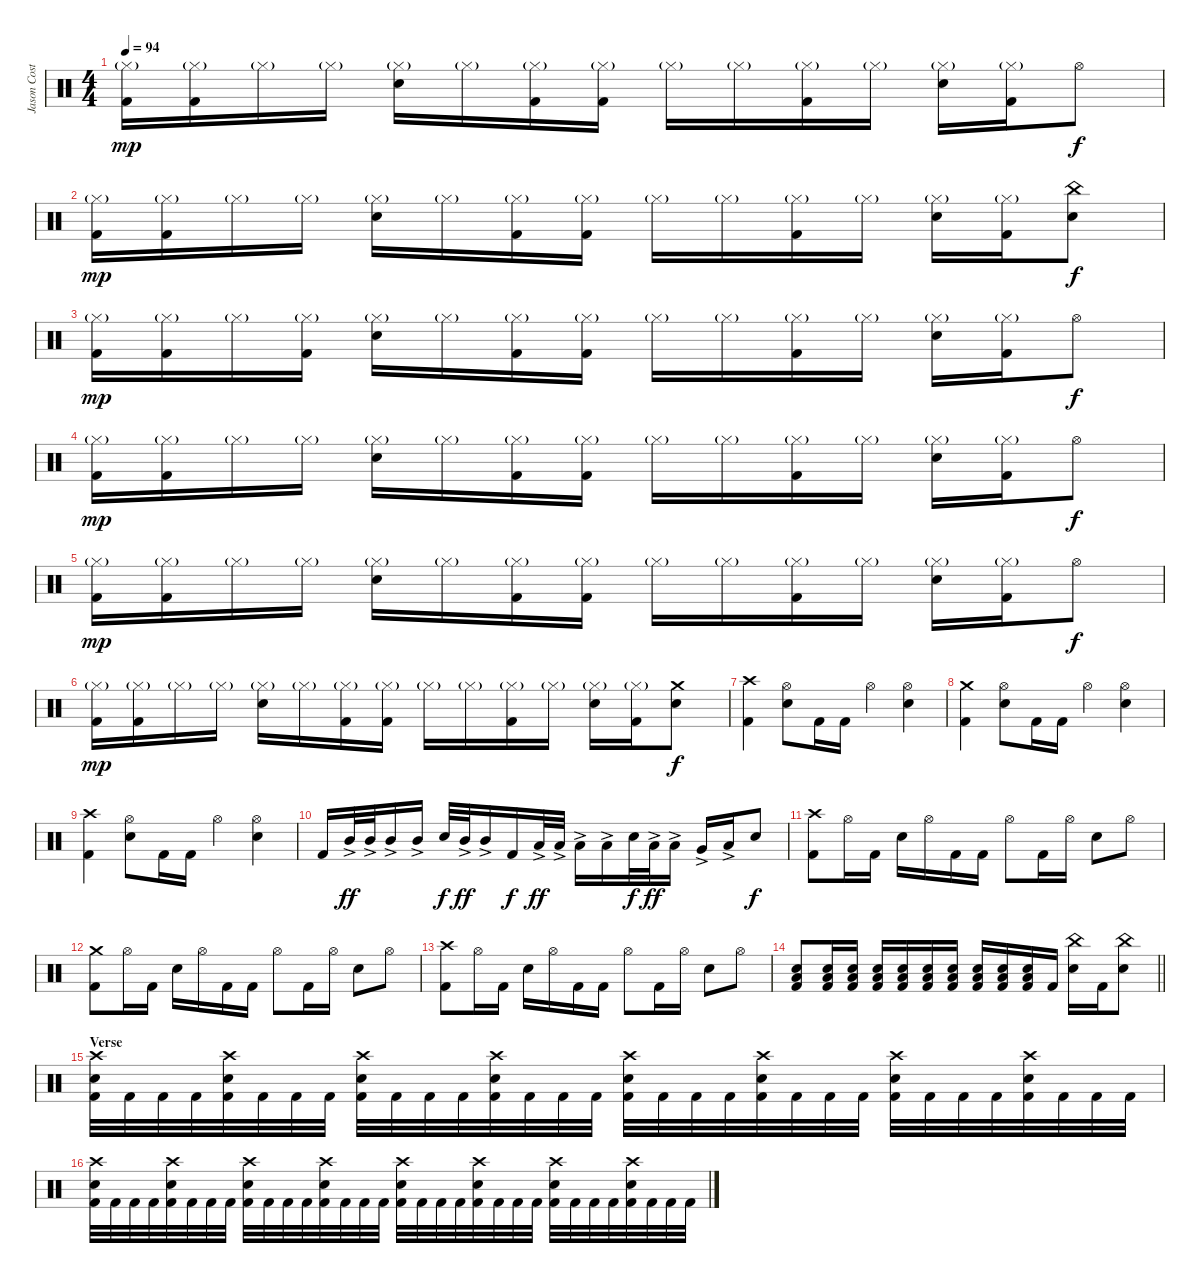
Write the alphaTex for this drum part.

\track ("Jason Costa" "Jason Cost") {instrument percussion}
\staff {score}
\articulation defaults
\ts (4 4)
\tempo 94
\clef neutral
\ks c
("Hi-Hat (closed)"{g} "Kick (hit) 2").16{dy mp} ("Hi-Hat (closed)"{g} "Kick (hit) 2").16 "Hi-Hat (closed)"{g}.16 "Hi-Hat (closed)"{g}.16 ("Snare (hit) 2" "Hi-Hat (closed)"{g}).16 "Hi-Hat (closed)"{g}.16 ("Hi-Hat (closed)"{g} "Kick (hit) 2").16 ("Hi-Hat (closed)"{g} "Kick (hit) 2").16 "Hi-Hat (closed)"{g}.16 "Hi-Hat (closed)"{g}.16 ("Hi-Hat (closed)"{g} "Kick (hit) 2").16 "Hi-Hat (closed)"{g}.16 ("Snare (hit) 2" "Hi-Hat (closed)"{g}).16 ("Hi-Hat (closed)"{g} "Kick (hit) 2").16 "Hi-Hat (open)".8{dy f} |
("Hi-Hat (closed)"{g} "Kick (hit) 2").16{dy mp} ("Hi-Hat (closed)"{g} "Kick (hit) 2").16 "Hi-Hat (closed)"{g}.16 "Hi-Hat (closed)"{g}.16 ("Snare (hit) 2" "Hi-Hat (closed)"{g}).16 "Hi-Hat (closed)"{g}.16 ("Hi-Hat (closed)"{g} "Kick (hit) 2").16 ("Hi-Hat (closed)"{g} "Kick (hit) 2").16 "Hi-Hat (closed)"{g}.16 "Hi-Hat (closed)"{g}.16 ("Hi-Hat (closed)"{g} "Kick (hit) 2").16 "Hi-Hat (closed)"{g}.16 ("Snare (hit) 2" "Hi-Hat (closed)"{g}).16 ("Hi-Hat (closed)"{g} "Kick (hit) 2").16 ("China (hit)" "Snare (hit) 2").8{dy f} |
("Hi-Hat (closed)"{g} "Kick (hit) 2").16{dy mp} ("Hi-Hat (closed)"{g} "Kick (hit) 2").16 "Hi-Hat (closed)"{g}.16 ("Hi-Hat (closed)"{g} "Kick (hit) 2").16 ("Snare (hit) 2" "Hi-Hat (closed)"{g}).16 "Hi-Hat (closed)"{g}.16 ("Hi-Hat (closed)"{g} "Kick (hit) 2").16 ("Hi-Hat (closed)"{g} "Kick (hit) 2").16 "Hi-Hat (closed)"{g}.16 "Hi-Hat (closed)"{g}.16 ("Hi-Hat (closed)"{g} "Kick (hit) 2").16 "Hi-Hat (closed)"{g}.16 ("Snare (hit) 2" "Hi-Hat (closed)"{g}).16 ("Hi-Hat (closed)"{g} "Kick (hit) 2").16 "Hi-Hat (open)".8{dy f} |
("Hi-Hat (closed)"{g} "Kick (hit) 2").16{dy mp} ("Hi-Hat (closed)"{g} "Kick (hit) 2").16 "Hi-Hat (closed)"{g}.16 "Hi-Hat (closed)"{g}.16 ("Snare (hit) 2" "Hi-Hat (closed)"{g}).16 "Hi-Hat (closed)"{g}.16 ("Hi-Hat (closed)"{g} "Kick (hit) 2").16 ("Hi-Hat (closed)"{g} "Kick (hit) 2").16 "Hi-Hat (closed)"{g}.16 "Hi-Hat (closed)"{g}.16 ("Hi-Hat (closed)"{g} "Kick (hit) 2").16 "Hi-Hat (closed)"{g}.16 ("Snare (hit) 2" "Hi-Hat (closed)"{g}).16 ("Hi-Hat (closed)"{g} "Kick (hit) 2").16 "Hi-Hat (open)".8{dy f} |
("Hi-Hat (closed)"{g} "Kick (hit) 2").16{dy mp} ("Hi-Hat (closed)"{g} "Kick (hit) 2").16 "Hi-Hat (closed)"{g}.16 "Hi-Hat (closed)"{g}.16 ("Snare (hit) 2" "Hi-Hat (closed)"{g}).16 "Hi-Hat (closed)"{g}.16 ("Hi-Hat (closed)"{g} "Kick (hit) 2").16 ("Hi-Hat (closed)"{g} "Kick (hit) 2").16 "Hi-Hat (closed)"{g}.16 "Hi-Hat (closed)"{g}.16 ("Hi-Hat (closed)"{g} "Kick (hit) 2").16 "Hi-Hat (closed)"{g}.16 ("Snare (hit) 2" "Hi-Hat (closed)"{g}).16 ("Hi-Hat (closed)"{g} "Kick (hit) 2").16 "Hi-Hat (open)".8{dy f} |
("Hi-Hat (closed)"{g} "Kick (hit) 2").16{dy mp} ("Hi-Hat (closed)"{g} "Kick (hit) 2").16 "Hi-Hat (closed)"{g}.16 "Hi-Hat (closed)"{g}.16 ("Snare (hit) 2" "Hi-Hat (closed)"{g}).16 "Hi-Hat (closed)"{g}.16 ("Hi-Hat (closed)"{g} "Kick (hit) 2").16 ("Hi-Hat (closed)"{g} "Kick (hit) 2").16 "Hi-Hat (closed)"{g}.16 "Hi-Hat (closed)"{g}.16 ("Hi-Hat (closed)"{g} "Kick (hit) 2").16 "Hi-Hat (closed)"{g}.16 ("Snare (hit) 2" "Hi-Hat (closed)"{g}).16 ("Hi-Hat (closed)"{g} "Kick (hit) 2").16 ("Crash medium (hit)" "Snare (hit) 2").8{dy f} |
("Crash high (hit)" "Kick (hit) 2").4 ("Snare (hit) 2" "Hi-Hat (open)").8 "Kick (hit) 2".16 "Kick (hit) 2".16 "Hi-Hat (open)".4 ("Snare (hit) 2" "Hi-Hat (open)").4 |
("Crash medium (hit)" "Kick (hit) 2").4 ("Snare (hit) 2" "Hi-Hat (open)").8 "Kick (hit) 2".16 "Kick (hit) 2".16 "Hi-Hat (open)".4 ("Snare (hit) 2" "Hi-Hat (open)").4 |
("Crash high (hit)" "Kick (hit) 2").4 ("Snare (hit) 2" "Hi-Hat (open)").8 "Kick (hit) 2".16 "Kick (hit) 2".16 "Hi-Hat (open)".4 ("Snare (hit) 2" "Hi-Hat (open)").4 |
"Kick (hit) 2".16 "Mid Tom (hit)"{ac}.32{dy ff} "Mid Tom (hit)"{ac}.32 "Mid Tom (hit)"{ac}.16 "Mid Tom (hit)"{ac}.16 "Snare (hit) 2".32{dy f} "Mid Tom (hit)"{ac}.32{dy ff} "Mid Tom (hit)"{ac}.16 "Kick (hit) 2".16{dy f} "Low Tom (hit)"{ac}.32{dy ff} "Low Tom (hit)"{ac}.32 "Low Tom (hit)"{ac}.16 "Low Tom (hit)"{ac}.16 "Snare (hit) 2".32{dy f} "Low Tom (hit)"{ac}.32{dy ff} "Low Tom (hit)"{ac}.16 "Very Low Tom (hit)"{ac}.16 "Low Floor Tom (hit)"{ac}.16 "Snare (hit) 2".8{dy f} |
("Crash high (hit)" "Kick (hit) 2").8 "Hi-Hat (open)".16 "Kick (hit) 2".16 "Snare (hit) 2".16 "Hi-Hat (open)".16 "Kick (hit) 2".16 "Kick (hit) 2".16 "Hi-Hat (open)".8 "Kick (hit) 2".16 "Hi-Hat (open)".16 "Snare (hit) 2".8 "Hi-Hat (open)".8 |
("Crash medium (hit)" "Kick (hit) 2").8 "Hi-Hat (open)".16 "Kick (hit) 2".16 "Snare (hit) 2".16 "Hi-Hat (open)".16 "Kick (hit) 2".16 "Kick (hit) 2".16 "Hi-Hat (open)".8 "Kick (hit) 2".16 "Hi-Hat (open)".16 "Snare (hit) 2".8 "Hi-Hat (open)".8 |
("Crash high (hit)" "Kick (hit) 2").8 "Hi-Hat (open)".16 "Kick (hit) 2".16 "Snare (hit) 2".16 "Hi-Hat (open)".16 "Kick (hit) 2".16 "Kick (hit) 2".16 "Hi-Hat (open)".8 "Kick (hit) 2".16 "Hi-Hat (open)".16 "Snare (hit) 2".8 "Hi-Hat (open)".8 |
\barLineRight lightlight
("Snare (hit) 2" "Low Floor Tom (hit)" "Kick (hit) 2").8 ("Snare (hit) 2" "Low Floor Tom (hit)" "Kick (hit) 2").16 ("Snare (hit) 2" "Low Floor Tom (hit)" "Kick (hit) 2").16 ("Snare (hit) 2" "Low Floor Tom (hit)" "Kick (hit) 2").16 ("Snare (hit) 2" "Low Floor Tom (hit)" "Kick (hit) 2").16 ("Snare (hit) 2" "Low Floor Tom (hit)" "Kick (hit) 2").16 ("Snare (hit) 2" "Low Floor Tom (hit)" "Kick (hit) 2").16 ("Snare (hit) 2" "Low Floor Tom (hit)" "Kick (hit) 2").16 ("Snare (hit) 2" "Low Floor Tom (hit)" "Kick (hit) 2").16 ("Snare (hit) 2" "Low Floor Tom (hit)" "Kick (hit) 2").16 "Kick (hit) 2".16 ("China (hit)" "Snare (hit) 2").16 "Kick (hit) 2".16 ("China (hit)" "Snare (hit) 2").8 |
\section ("" "Verse")
("Crash high (hit)" "Snare (hit) 2" "Kick (hit) 2").32 "Kick (hit) 2".32 "Kick (hit) 2".32 "Kick (hit) 2".32 ("Crash high (hit)" "Snare (hit) 2" "Kick (hit) 2").32 "Kick (hit) 2".32 "Kick (hit) 2".32 "Kick (hit) 2".32 ("Crash high (hit)" "Snare (hit) 2" "Kick (hit) 2").32 "Kick (hit) 2".32 "Kick (hit) 2".32 "Kick (hit) 2".32 ("Crash high (hit)" "Snare (hit) 2" "Kick (hit) 2").32 "Kick (hit) 2".32 "Kick (hit) 2".32 "Kick (hit) 2".32 ("Crash high (hit)" "Snare (hit) 2" "Kick (hit) 2").32 "Kick (hit) 2".32 "Kick (hit) 2".32 "Kick (hit) 2".32 ("Crash high (hit)" "Snare (hit) 2" "Kick (hit) 2").32 "Kick (hit) 2".32 "Kick (hit) 2".32 "Kick (hit) 2".32 ("Crash high (hit)" "Snare (hit) 2" "Kick (hit) 2").32 "Kick (hit) 2".32 "Kick (hit) 2".32 "Kick (hit) 2".32 ("Crash high (hit)" "Snare (hit) 2" "Kick (hit) 2").32 "Kick (hit) 2".32 "Kick (hit) 2".32 "Kick (hit) 2".32 |
("Crash high (hit)" "Snare (hit) 2" "Kick (hit) 2").32 "Kick (hit) 2".32 "Kick (hit) 2".32 "Kick (hit) 2".32 ("Crash high (hit)" "Snare (hit) 2" "Kick (hit) 2").32 "Kick (hit) 2".32 "Kick (hit) 2".32 "Kick (hit) 2".32 ("Crash high (hit)" "Snare (hit) 2" "Kick (hit) 2").32 "Kick (hit) 2".32 "Kick (hit) 2".32 "Kick (hit) 2".32 ("Crash high (hit)" "Snare (hit) 2" "Kick (hit) 2").32 "Kick (hit) 2".32 "Kick (hit) 2".32 "Kick (hit) 2".32 ("Crash high (hit)" "Snare (hit) 2" "Kick (hit) 2").32 "Kick (hit) 2".32 "Kick (hit) 2".32 "Kick (hit) 2".32 ("Crash high (hit)" "Snare (hit) 2" "Kick (hit) 2").32 "Kick (hit) 2".32 "Kick (hit) 2".32 "Kick (hit) 2".32 ("Crash high (hit)" "Snare (hit) 2" "Kick (hit) 2").32 "Kick (hit) 2".32 "Kick (hit) 2".32 "Kick (hit) 2".32 ("Crash high (hit)" "Snare (hit) 2" "Kick (hit) 2").32 "Kick (hit) 2".32 "Kick (hit) 2".32 "Kick (hit) 2".32
